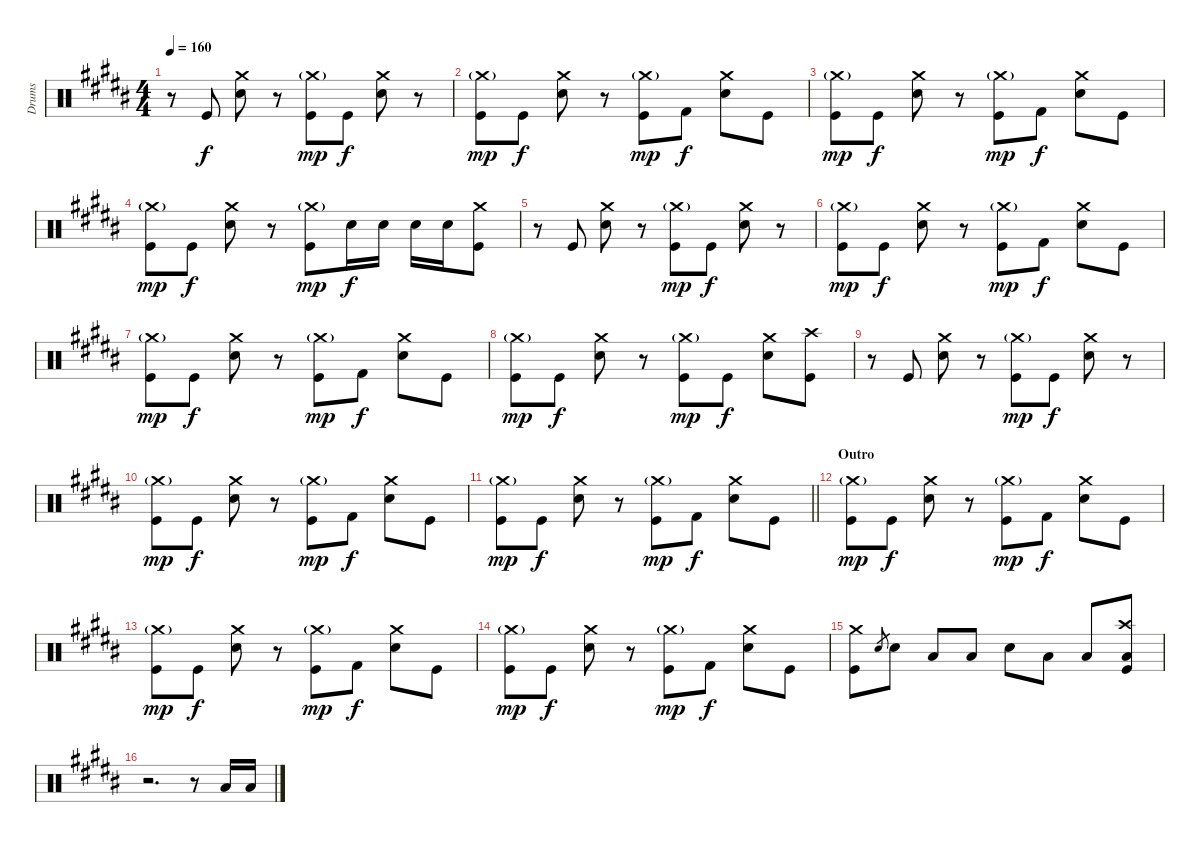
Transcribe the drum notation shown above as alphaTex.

\track ("Drums" "Drums") {instrument percussion}
\staff {score}
\articulation defaults
\ts (4 4)
\tempo 160
\clef neutral
\ks b
r.8{dy f} "Kick (hit)".8 ("Crash medium (hit)" "Snare (hit) 2").8 r.8 ("Crash medium (hit)"{g} "Kick (hit)").8{dy mp} "Kick (hit)".8{dy f} ("Crash medium (hit)" "Snare (hit) 2").8 r.8 |
("Crash medium (hit)"{g} "Kick (hit)").8{dy mp} "Kick (hit)".8{dy f} ("Crash medium (hit)" "Snare (hit) 2").8 r.8 ("Crash medium (hit)"{g} "Kick (hit)").8{dy mp} "Kick (hit) 2".8{dy f} ("Crash medium (hit)" "Snare (hit) 2").8 "Kick (hit)".8 |
("Crash medium (hit)"{g} "Kick (hit)").8{dy mp} "Kick (hit)".8{dy f} ("Crash medium (hit)" "Snare (hit) 2").8 r.8 ("Crash medium (hit)"{g} "Kick (hit)").8{dy mp} "Kick (hit) 2".8{dy f} ("Crash medium (hit)" "Snare (hit) 2").8 "Kick (hit)".8 |
("Crash medium (hit)"{g} "Kick (hit)").8{dy mp} "Kick (hit)".8{dy f} ("Crash medium (hit)" "Snare (hit) 2").8 r.8 ("Crash medium (hit)"{g} "Kick (hit)").8{dy mp} "Snare (hit) 2".16{dy f} "Snare (hit) 2".16 "Snare (hit) 2".16 "Snare (hit) 2".16 ("Crash medium (hit)" "Kick (hit)").8 |
r.8 "Kick (hit)".8 ("Crash medium (hit)" "Snare (hit) 2").8 r.8 ("Crash medium (hit)"{g} "Kick (hit)").8{dy mp} "Kick (hit)".8{dy f} ("Crash medium (hit)" "Snare (hit) 2").8 r.8 |
("Crash medium (hit)"{g} "Kick (hit)").8{dy mp} "Kick (hit)".8{dy f} ("Crash medium (hit)" "Snare (hit) 2").8 r.8 ("Crash medium (hit)"{g} "Kick (hit)").8{dy mp} "Kick (hit) 2".8{dy f} ("Crash medium (hit)" "Snare (hit) 2").8 "Kick (hit)".8 |
("Crash medium (hit)"{g} "Kick (hit)").8{dy mp} "Kick (hit)".8{dy f} ("Crash medium (hit)" "Snare (hit) 2").8 r.8 ("Crash medium (hit)"{g} "Kick (hit)").8{dy mp} "Kick (hit) 2".8{dy f} ("Crash medium (hit)" "Snare (hit) 2").8 "Kick (hit)".8 |
("Crash medium (hit)"{g} "Kick (hit)").8{dy mp} "Kick (hit)".8{dy f} ("Crash medium (hit)" "Snare (hit) 2").8 r.8 ("Crash medium (hit)"{g} "Kick (hit)").8{dy mp} "Kick (hit)".8{dy f} ("Crash medium (hit)" "Snare (hit) 2").8 ("Crash high (hit)" "Kick (hit)").8 |
r.8 "Kick (hit)".8 ("Crash medium (hit)" "Snare (hit) 2").8 r.8 ("Crash medium (hit)"{g} "Kick (hit)").8{dy mp} "Kick (hit)".8{dy f} ("Crash medium (hit)" "Snare (hit) 2").8 r.8 |
("Crash medium (hit)"{g} "Kick (hit)").8{dy mp} "Kick (hit)".8{dy f} ("Crash medium (hit)" "Snare (hit) 2").8 r.8 ("Crash medium (hit)"{g} "Kick (hit)").8{dy mp} "Kick (hit) 2".8{dy f} ("Crash medium (hit)" "Snare (hit) 2").8 "Kick (hit)".8 |
\barLineRight lightlight
("Crash medium (hit)"{g} "Kick (hit)").8{dy mp} "Kick (hit)".8{dy f} ("Crash medium (hit)" "Snare (hit) 2").8 r.8 ("Crash medium (hit)"{g} "Kick (hit)").8{dy mp} "Kick (hit) 2".8{dy f} ("Crash medium (hit)" "Snare (hit) 2").8 "Kick (hit)".8 |
\section ("" "Outro")
("Crash medium (hit)"{g} "Kick (hit)").8{dy mp} "Kick (hit)".8{dy f} ("Crash medium (hit)" "Snare (hit) 2").8 r.8 ("Crash medium (hit)"{g} "Kick (hit)").8{dy mp} "Kick (hit) 2".8{dy f} ("Crash medium (hit)" "Snare (hit) 2").8 "Kick (hit)".8 |
("Crash medium (hit)"{g} "Kick (hit)").8{dy mp} "Kick (hit)".8{dy f} ("Crash medium (hit)" "Snare (hit) 2").8 r.8 ("Crash medium (hit)"{g} "Kick (hit)").8{dy mp} "Kick (hit) 2".8{dy f} ("Crash medium (hit)" "Snare (hit) 2").8 "Kick (hit)".8 |
("Crash medium (hit)"{g} "Kick (hit)").8{dy mp} "Kick (hit)".8{dy f} ("Crash medium (hit)" "Snare (hit) 2").8 r.8 ("Crash medium (hit)"{g} "Kick (hit)").8{dy mp} "Kick (hit) 2".8{dy f} ("Crash medium (hit)" "Snare (hit) 2").8 "Kick (hit)".8 |
("Crash medium (hit)" "Kick (hit)").8 "Snare (hit) 2".8{gr} "Snare (hit) 2".8 "Low Tom (hit)".8 "Low Floor Tom (hit)".8 "Snare (hit) 2".8 "Low Tom (hit)".8 "Low Floor Tom (hit)".8 ("Crash high (hit)" "Low Floor Tom (hit)" "Kick (hit)").8 |
r.2{d} r.8 "Low Floor Tom (hit)".16 "Low Floor Tom (hit)".16
